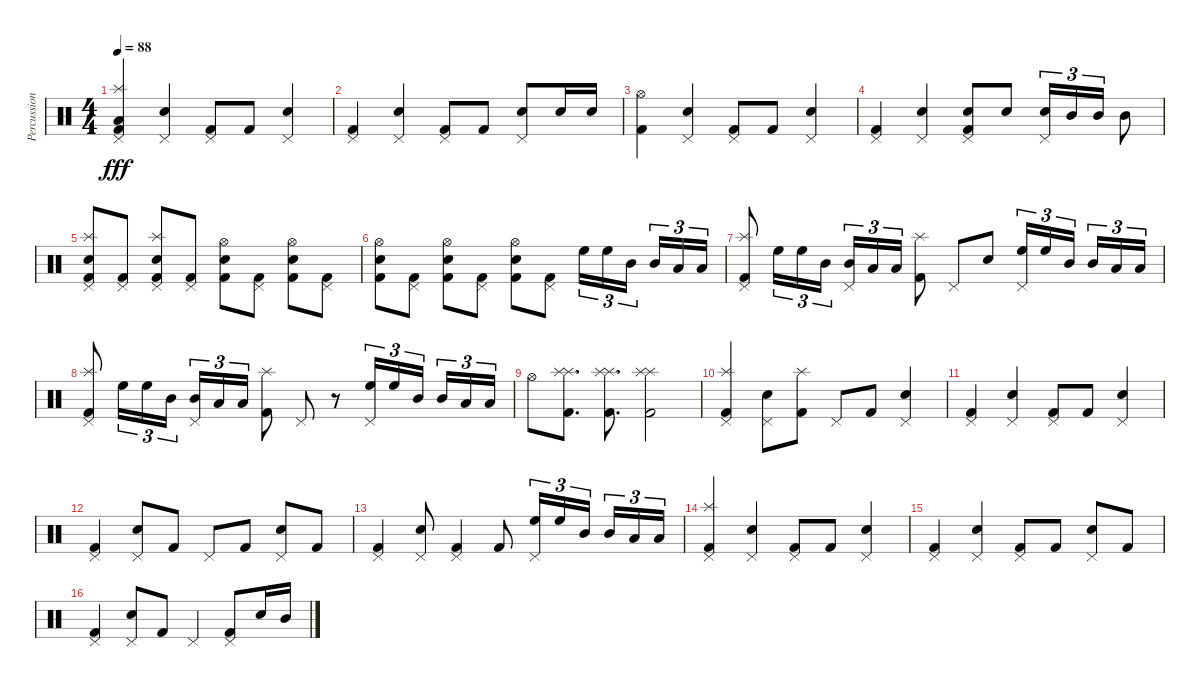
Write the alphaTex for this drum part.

\track ("Percussion" "Percussion") {instrument percussion}
\staff {score}
\articulation defaults
\ts (4 4)
\tempo 88
\clef neutral
\ks c
("Pedal Hi-Hat (hit)" "Splash (hit)" "Low Tom (hit)" "Kick (hit) 2").4{dy fff} ("Pedal Hi-Hat (hit)" "Snare (hit) 2").4 ("Pedal Hi-Hat (hit)" "Kick (hit) 2").8 "Kick (hit) 2".8 ("Pedal Hi-Hat (hit)" "Snare (hit) 2").4 |
("Pedal Hi-Hat (hit)" "Kick (hit) 2").4 ("Pedal Hi-Hat (hit)" "Snare (hit) 2").4 ("Pedal Hi-Hat (hit)" "Kick (hit) 2").8 "Kick (hit) 2".8 ("Pedal Hi-Hat (hit)" "Snare (hit) 2").8 "Snare (hit) 2".16 "Snare (hit) 2".16 |
("Hi-Hat (open)" "Kick (hit) 2").4 ("Pedal Hi-Hat (hit)" "Snare (hit) 2").4 ("Pedal Hi-Hat (hit)" "Kick (hit) 2").8 "Kick (hit) 2".8 ("Pedal Hi-Hat (hit)" "Snare (hit) 2").4 |
("Pedal Hi-Hat (hit)" "Kick (hit) 2").4 ("Pedal Hi-Hat (hit)" "Snare (hit) 2").4 ("Pedal Hi-Hat (hit)" "Snare (hit) 2" "Kick (hit) 2").8 "Snare (hit) 2".8 ("Pedal Hi-Hat (hit)" "Snare (hit) 2").16{tu (3 2)} "Mid Tom (hit)".16{tu (3 2)} "Mid Tom (hit)".16{tu (3 2)} "Mid Tom (hit)".8 |
("Pedal Hi-Hat (hit)" "Splash (hit)" "Snare (hit) 2" "Kick (hit) 2").8 ("Pedal Hi-Hat (hit)" "Kick (hit) 2").8 ("Pedal Hi-Hat (hit)" "Splash (hit)" "Snare (hit) 2" "Kick (hit) 2").8 ("Pedal Hi-Hat (hit)" "Kick (hit) 2").8 ("Hi-Hat (open)" "Snare (hit) 2" "Kick (hit) 2").8 ("Pedal Hi-Hat (hit)" "Kick (hit) 2").8 ("Hi-Hat (open)" "Snare (hit) 2" "Kick (hit) 2").8 ("Pedal Hi-Hat (hit)" "Kick (hit) 2").8 |
("Hi-Hat (open)" "Snare (hit) 2" "Kick (hit) 2").8 ("Pedal Hi-Hat (hit)" "Kick (hit) 2").8 ("Hi-Hat (open)" "Snare (hit) 2" "Kick (hit) 2").8 ("Pedal Hi-Hat (hit)" "Kick (hit) 2").8 ("Hi-Hat (open)" "Snare (hit) 2" "Kick (hit) 2").8 ("Pedal Hi-Hat (hit)" "Kick (hit) 2").8 "High Floor Tom (hit)".16{tu (3 2)} "High Floor Tom (hit)".16{tu (3 2)} "Mid Tom (hit)".16{tu (3 2) beam splitsecondary} "Mid Tom (hit)".16{tu (3 2)} "Low Tom (hit)".16{tu (3 2)} "Low Tom (hit)".16{tu (3 2)} |
("Pedal Hi-Hat (hit)" "Splash (hit)" "Kick (hit) 2").8 "High Floor Tom (hit)".16{tu (3 2)} "High Floor Tom (hit)".16{tu (3 2)} "Mid Tom (hit)".16{tu (3 2)} ("Pedal Hi-Hat (hit)" "Mid Tom (hit)").16{tu (3 2)} "Low Tom (hit)".16{tu (3 2)} "Low Tom (hit)".16{tu (3 2)} ("Splash (hit)" "Kick (hit) 2").8 "Pedal Hi-Hat (hit)".8 "Snare (hit) 2".8 ("Pedal Hi-Hat (hit)" "High Floor Tom (hit)").16{tu (3 2)} "High Floor Tom (hit)".16{tu (3 2)} "Mid Tom (hit)".16{tu (3 2) beam splitsecondary} "Mid Tom (hit)".16{tu (3 2)} "Low Tom (hit)".16{tu (3 2)} "Low Tom (hit)".16{tu (3 2)} |
("Pedal Hi-Hat (hit)" "Splash (hit)" "Kick (hit) 2").8 "High Floor Tom (hit)".16{tu (3 2)} "High Floor Tom (hit)".16{tu (3 2)} "Mid Tom (hit)".16{tu (3 2)} ("Pedal Hi-Hat (hit)" "Mid Tom (hit)").16{tu (3 2)} "Low Tom (hit)".16{tu (3 2)} "Low Tom (hit)".16{tu (3 2)} ("Splash (hit)" "Kick (hit) 2").8 "Pedal Hi-Hat (hit)".8 r.8 ("Pedal Hi-Hat (hit)" "High Floor Tom (hit)").16{tu (3 2)} "High Floor Tom (hit)".16{tu (3 2)} "Mid Tom (hit)".16{tu (3 2) beam splitsecondary} "Mid Tom (hit)".16{tu (3 2)} "Low Tom (hit)".16{tu (3 2)} "Low Tom (hit)".16{tu (3 2)} |
"Hi-Hat (open)".8 ("Splash (hit)" "Splash (hit)" "Kick (hit) 2").8{d} ("Splash (hit)" "Splash (hit)" "Kick (hit) 2").8{d} ("Splash (hit)" "Splash (hit)" "Kick (hit) 2").2 |
("Pedal Hi-Hat (hit)" "Splash (hit)" "Kick (hit) 2").4 ("Pedal Hi-Hat (hit)" "Snare (hit) 2").8 ("Splash (hit)" "Kick (hit) 2").8 "Pedal Hi-Hat (hit)".8 "Kick (hit) 2".8 ("Pedal Hi-Hat (hit)" "Snare (hit) 2").4 |
("Pedal Hi-Hat (hit)" "Kick (hit) 2").4 ("Pedal Hi-Hat (hit)" "Snare (hit) 2").4 ("Pedal Hi-Hat (hit)" "Kick (hit) 2").8 "Kick (hit) 2".8 ("Pedal Hi-Hat (hit)" "Snare (hit) 2").4 |
("Pedal Hi-Hat (hit)" "Kick (hit) 2").4 ("Pedal Hi-Hat (hit)" "Snare (hit) 2").8 "Kick (hit) 2".8 "Pedal Hi-Hat (hit)".8 "Kick (hit) 2".8 ("Pedal Hi-Hat (hit)" "Snare (hit) 2").8 "Kick (hit) 2".8 |
("Pedal Hi-Hat (hit)" "Kick (hit) 2").4 ("Pedal Hi-Hat (hit)" "Snare (hit) 2").8 ("Pedal Hi-Hat (hit)" "Kick (hit) 2").4 "Kick (hit) 2".8 ("Pedal Hi-Hat (hit)" "High Floor Tom (hit)").16{tu (3 2)} "High Floor Tom (hit)".16{tu (3 2)} "Mid Tom (hit)".16{tu (3 2) beam splitsecondary} "Mid Tom (hit)".16{tu (3 2)} "Low Tom (hit)".16{tu (3 2)} "Low Tom (hit)".16{tu (3 2)} |
("Pedal Hi-Hat (hit)" "Splash (hit)" "Kick (hit) 2").4 ("Pedal Hi-Hat (hit)" "Snare (hit) 2").4 ("Pedal Hi-Hat (hit)" "Kick (hit) 2").8 "Kick (hit) 2".8 ("Pedal Hi-Hat (hit)" "Snare (hit) 2").4 |
("Pedal Hi-Hat (hit)" "Kick (hit) 2").4 ("Pedal Hi-Hat (hit)" "Snare (hit) 2").4 ("Pedal Hi-Hat (hit)" "Kick (hit) 2").8 "Kick (hit) 2".8 ("Pedal Hi-Hat (hit)" "Snare (hit) 2").8 "Kick (hit) 2".8 |
("Pedal Hi-Hat (hit)" "Kick (hit) 2").4 ("Pedal Hi-Hat (hit)" "Snare (hit) 2").8 "Kick (hit) 2".8 "Pedal Hi-Hat (hit)".4 ("Pedal Hi-Hat (hit)" "Kick (hit) 2").8 "Snare (hit) 2".16 "Mid Tom (hit)".16
